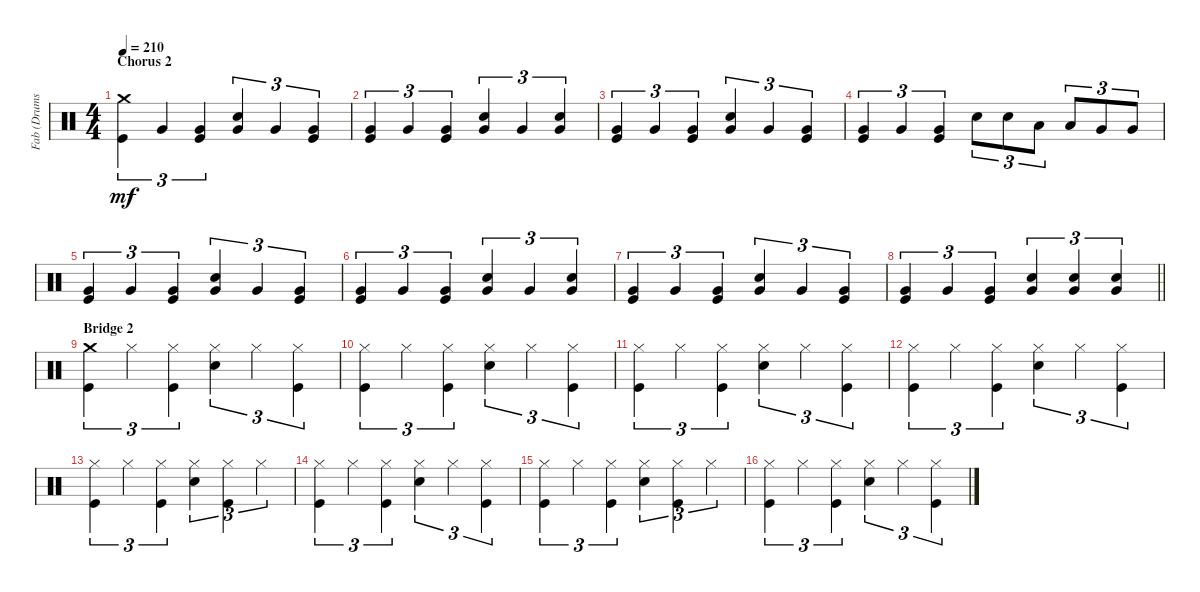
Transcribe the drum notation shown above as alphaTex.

\track ("Fab (Drums)" "Fab (Drums") {instrument percussion}
\staff {score}
\articulation defaults
\ts (4 4)
\section ("" "Chorus 2")
\tempo 210
\clef neutral
\ks c
("Kick (hit)" "Crash medium (hit)").4{tu (3 2) dy mf} "Very Low Tom (hit)".4{tu (3 2)} ("Very Low Tom (hit)" "Kick (hit)").4{tu (3 2)} ("Very Low Tom (hit)" "Snare (hit) 2").4{tu (3 2)} "Very Low Tom (hit)".4{tu (3 2)} ("Very Low Tom (hit)" "Kick (hit)").4{tu (3 2)} |
("Kick (hit)" "Very Low Tom (hit)").4{tu (3 2)} "Very Low Tom (hit)".4{tu (3 2)} ("Very Low Tom (hit)" "Kick (hit)").4{tu (3 2)} ("Very Low Tom (hit)" "Snare (hit) 2").4{tu (3 2)} "Very Low Tom (hit)".4{tu (3 2)} ("Very Low Tom (hit)" "Snare (hit) 2").4{tu (3 2)} |
("Kick (hit)" "Very Low Tom (hit)").4{tu (3 2)} "Very Low Tom (hit)".4{tu (3 2)} ("Very Low Tom (hit)" "Kick (hit)").4{tu (3 2)} ("Very Low Tom (hit)" "Snare (hit) 2").4{tu (3 2)} "Very Low Tom (hit)".4{tu (3 2)} ("Very Low Tom (hit)" "Kick (hit)").4{tu (3 2)} |
("Kick (hit)" "Very Low Tom (hit)").4{tu (3 2)} "Very Low Tom (hit)".4{tu (3 2)} ("Very Low Tom (hit)" "Kick (hit)").4{tu (3 2)} "Snare (hit) 2".8{tu (3 2)} "Snare (hit) 2".8{tu (3 2)} "Low Tom (hit)".8{tu (3 2)} "Low Tom (hit)".8{tu (3 2)} "Very Low Tom (hit)".8{tu (3 2)} "Very Low Tom (hit)".8{tu (3 2)} |
("Kick (hit)" "Very Low Tom (hit)").4{tu (3 2)} "Very Low Tom (hit)".4{tu (3 2)} ("Very Low Tom (hit)" "Kick (hit)").4{tu (3 2)} ("Very Low Tom (hit)" "Snare (hit) 2").4{tu (3 2)} "Very Low Tom (hit)".4{tu (3 2)} ("Very Low Tom (hit)" "Kick (hit)").4{tu (3 2)} |
("Kick (hit)" "Very Low Tom (hit)").4{tu (3 2)} "Very Low Tom (hit)".4{tu (3 2)} ("Very Low Tom (hit)" "Kick (hit)").4{tu (3 2)} ("Very Low Tom (hit)" "Snare (hit) 2").4{tu (3 2)} "Very Low Tom (hit)".4{tu (3 2)} ("Very Low Tom (hit)" "Snare (hit) 2").4{tu (3 2)} |
("Kick (hit)" "Very Low Tom (hit)").4{tu (3 2)} "Very Low Tom (hit)".4{tu (3 2)} ("Very Low Tom (hit)" "Kick (hit)").4{tu (3 2)} ("Very Low Tom (hit)" "Snare (hit) 2").4{tu (3 2)} "Very Low Tom (hit)".4{tu (3 2)} ("Very Low Tom (hit)" "Kick (hit)").4{tu (3 2)} |
\barLineRight lightlight
("Kick (hit)" "Very Low Tom (hit)").4{tu (3 2)} "Very Low Tom (hit)".4{tu (3 2)} ("Very Low Tom (hit)" "Kick (hit)").4{tu (3 2)} ("Very Low Tom (hit)" "Snare (hit) 2").4{tu (3 2)} ("Very Low Tom (hit)" "Snare (hit) 2").4{tu (3 2)} ("Very Low Tom (hit)" "Snare (hit) 2").4{tu (3 2)} |
\section ("" "Bridge 2")
("Kick (hit)" "Crash medium (hit)").4{tu (3 2)} "Hi-Hat (closed)".4{tu (3 2)} ("Hi-Hat (closed)" "Kick (hit)").4{tu (3 2)} ("Hi-Hat (closed)" "Snare (hit) 2").4{tu (3 2)} "Hi-Hat (closed)".4{tu (3 2)} ("Hi-Hat (closed)" "Kick (hit)").4{tu (3 2)} |
("Kick (hit)" "Hi-Hat (closed)").4{tu (3 2)} "Hi-Hat (closed)".4{tu (3 2)} ("Hi-Hat (closed)" "Kick (hit)").4{tu (3 2)} ("Hi-Hat (closed)" "Snare (hit) 2").4{tu (3 2)} "Hi-Hat (closed)".4{tu (3 2)} ("Hi-Hat (closed)" "Kick (hit)").4{tu (3 2)} |
("Kick (hit)" "Hi-Hat (closed)").4{tu (3 2)} "Hi-Hat (closed)".4{tu (3 2)} ("Hi-Hat (closed)" "Kick (hit)").4{tu (3 2)} ("Hi-Hat (closed)" "Snare (hit) 2").4{tu (3 2)} "Hi-Hat (closed)".4{tu (3 2)} ("Hi-Hat (closed)" "Kick (hit)").4{tu (3 2)} |
("Kick (hit)" "Hi-Hat (closed)").4{tu (3 2)} "Hi-Hat (closed)".4{tu (3 2)} ("Hi-Hat (closed)" "Kick (hit)").4{tu (3 2)} ("Hi-Hat (closed)" "Snare (hit) 2").4{tu (3 2)} "Hi-Hat (closed)".4{tu (3 2)} ("Hi-Hat (closed)" "Kick (hit)").4{tu (3 2)} |
("Kick (hit)" "Hi-Hat (closed)").4{tu (3 2)} "Hi-Hat (closed)".4{tu (3 2)} ("Hi-Hat (closed)" "Kick (hit)").4{tu (3 2)} ("Hi-Hat (closed)" "Snare (hit) 2").4{tu (3 2)} ("Hi-Hat (closed)" "Kick (hit)").4{tu (3 2)} "Hi-Hat (closed)".4{tu (3 2)} |
("Kick (hit)" "Hi-Hat (closed)").4{tu (3 2)} "Hi-Hat (closed)".4{tu (3 2)} ("Hi-Hat (closed)" "Kick (hit)").4{tu (3 2)} ("Hi-Hat (closed)" "Snare (hit) 2").4{tu (3 2)} "Hi-Hat (closed)".4{tu (3 2)} ("Hi-Hat (closed)" "Kick (hit)").4{tu (3 2)} |
("Kick (hit)" "Hi-Hat (closed)").4{tu (3 2)} "Hi-Hat (closed)".4{tu (3 2)} ("Hi-Hat (closed)" "Kick (hit)").4{tu (3 2)} ("Hi-Hat (closed)" "Snare (hit) 2").4{tu (3 2)} ("Hi-Hat (closed)" "Kick (hit)").4{tu (3 2)} "Hi-Hat (closed)".4{tu (3 2)} |
("Kick (hit)" "Hi-Hat (closed)").4{tu (3 2)} "Hi-Hat (closed)".4{tu (3 2)} ("Hi-Hat (closed)" "Kick (hit)").4{tu (3 2)} ("Hi-Hat (closed)" "Snare (hit) 2").4{tu (3 2)} "Hi-Hat (closed)".4{tu (3 2)} ("Hi-Hat (closed)" "Kick (hit)").4{tu (3 2)}
